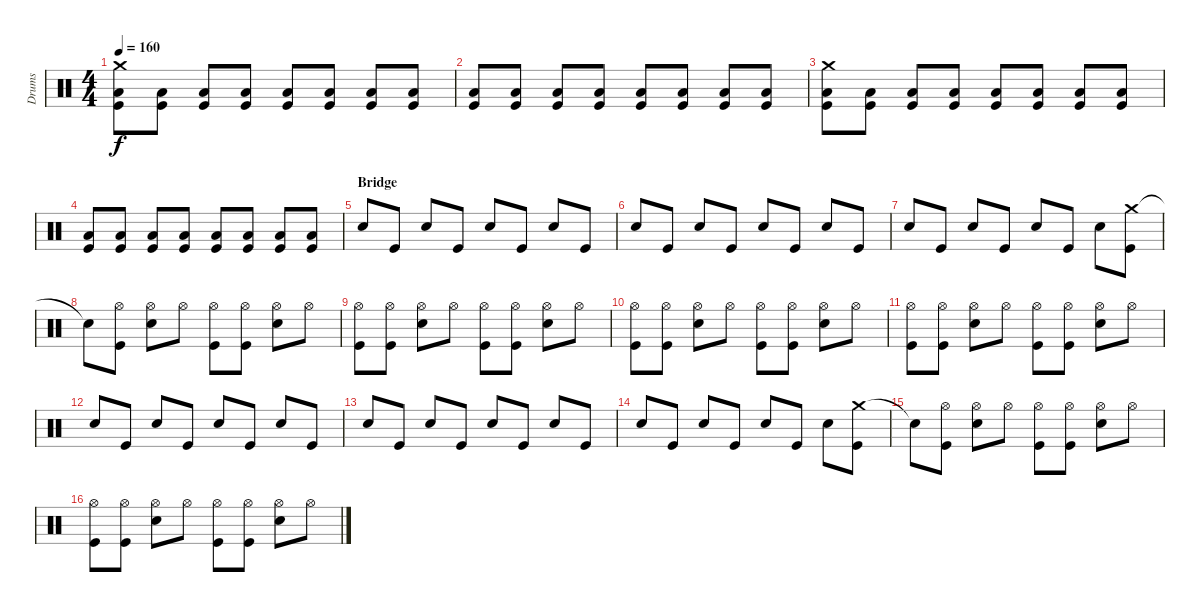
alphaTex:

\track ("Drums" "Drums") {instrument percussion}
\staff {score}
\articulation defaults
\ts (4 4)
\tempo 160
\clef neutral
\ks c
("Crash medium (hit)" "Low Tom (hit)" "Kick (hit)").8{dy f} ("Low Tom (hit)" "Kick (hit)").8 ("Low Tom (hit)" "Kick (hit)").8 ("Low Tom (hit)" "Kick (hit)").8 ("Low Tom (hit)" "Kick (hit)").8 ("Low Tom (hit)" "Kick (hit)").8 ("Low Tom (hit)" "Kick (hit)").8 ("Low Tom (hit)" "Kick (hit)").8 |
("Low Tom (hit)" "Kick (hit)").8 ("Low Tom (hit)" "Kick (hit)").8 ("Low Tom (hit)" "Kick (hit)").8 ("Low Tom (hit)" "Kick (hit)").8 ("Low Tom (hit)" "Kick (hit)").8 ("Low Tom (hit)" "Kick (hit)").8 ("Low Tom (hit)" "Kick (hit)").8 ("Low Tom (hit)" "Kick (hit)").8 |
("Crash medium (hit)" "Low Tom (hit)" "Kick (hit)").8 ("Low Tom (hit)" "Kick (hit)").8 ("Low Tom (hit)" "Kick (hit)").8 ("Low Tom (hit)" "Kick (hit)").8 ("Low Tom (hit)" "Kick (hit)").8 ("Low Tom (hit)" "Kick (hit)").8 ("Low Tom (hit)" "Kick (hit)").8 ("Low Tom (hit)" "Kick (hit)").8 |
("Low Tom (hit)" "Kick (hit)").8 ("Low Tom (hit)" "Kick (hit)").8 ("Low Tom (hit)" "Kick (hit)").8 ("Low Tom (hit)" "Kick (hit)").8 ("Low Tom (hit)" "Kick (hit)").8 ("Low Tom (hit)" "Kick (hit)").8 ("Low Tom (hit)" "Kick (hit)").8 ("Low Tom (hit)" "Kick (hit)").8 |
\section ("" "Bridge")
"Electric Snare (hit)".8 "Kick (hit)".8 "Electric Snare (hit)".8 "Kick (hit)".8 "Electric Snare (hit)".8 "Kick (hit)".8 "Electric Snare (hit)".8 "Kick (hit)".8 |
"Electric Snare (hit)".8 "Kick (hit)".8 "Electric Snare (hit)".8 "Kick (hit)".8 "Electric Snare (hit)".8 "Kick (hit)".8 "Electric Snare (hit)".8 "Kick (hit)".8 |
"Electric Snare (hit)".8 "Kick (hit)".8 "Electric Snare (hit)".8 "Kick (hit)".8 "Electric Snare (hit)".8 "Kick (hit)".8 "Electric Snare (hit)".8 ("Crash medium (hit)" "Kick (hit)").8 |
"Snare (hit)"{t}.8 ("Hi-Hat (open)" "Kick (hit)").8 ("Hi-Hat (open)" "Electric Snare (hit)").8 "Hi-Hat (open)".8 ("Hi-Hat (open)" "Kick (hit)").8 ("Hi-Hat (open)" "Kick (hit)").8 ("Hi-Hat (open)" "Electric Snare (hit)").8 "Hi-Hat (open)".8 |
("Hi-Hat (open)" "Kick (hit)").8 ("Hi-Hat (open)" "Kick (hit)").8 ("Hi-Hat (open)" "Electric Snare (hit)").8 "Hi-Hat (open)".8 ("Hi-Hat (open)" "Kick (hit)").8 ("Hi-Hat (open)" "Kick (hit)").8 ("Hi-Hat (open)" "Electric Snare (hit)").8 "Hi-Hat (open)".8 |
("Hi-Hat (open)" "Kick (hit)").8 ("Hi-Hat (open)" "Kick (hit)").8 ("Hi-Hat (open)" "Electric Snare (hit)").8 "Hi-Hat (open)".8 ("Hi-Hat (open)" "Kick (hit)").8 ("Hi-Hat (open)" "Kick (hit)").8 ("Hi-Hat (open)" "Electric Snare (hit)").8 "Hi-Hat (open)".8 |
("Hi-Hat (open)" "Kick (hit)").8 ("Hi-Hat (open)" "Kick (hit)").8 ("Hi-Hat (open)" "Electric Snare (hit)").8 "Hi-Hat (open)".8 ("Hi-Hat (open)" "Kick (hit)").8 ("Hi-Hat (open)" "Kick (hit)").8 ("Hi-Hat (open)" "Electric Snare (hit)").8 "Hi-Hat (open)".8 |
"Electric Snare (hit)".8 "Kick (hit)".8 "Electric Snare (hit)".8 "Kick (hit)".8 "Electric Snare (hit)".8 "Kick (hit)".8 "Electric Snare (hit)".8 "Kick (hit)".8 |
"Electric Snare (hit)".8 "Kick (hit)".8 "Electric Snare (hit)".8 "Kick (hit)".8 "Electric Snare (hit)".8 "Kick (hit)".8 "Electric Snare (hit)".8 "Kick (hit)".8 |
"Electric Snare (hit)".8 "Kick (hit)".8 "Electric Snare (hit)".8 "Kick (hit)".8 "Electric Snare (hit)".8 "Kick (hit)".8 "Electric Snare (hit)".8 ("Crash medium (hit)" "Kick (hit)").8 |
"Snare (hit)"{t}.8 ("Hi-Hat (open)" "Kick (hit)").8 ("Hi-Hat (open)" "Electric Snare (hit)").8 "Hi-Hat (open)".8 ("Hi-Hat (open)" "Kick (hit)").8 ("Hi-Hat (open)" "Kick (hit)").8 ("Hi-Hat (open)" "Electric Snare (hit)").8 "Hi-Hat (open)".8 |
("Hi-Hat (open)" "Kick (hit)").8 ("Hi-Hat (open)" "Kick (hit)").8 ("Hi-Hat (open)" "Electric Snare (hit)").8 "Hi-Hat (open)".8 ("Hi-Hat (open)" "Kick (hit)").8 ("Hi-Hat (open)" "Kick (hit)").8 ("Hi-Hat (open)" "Electric Snare (hit)").8 "Hi-Hat (open)".8
